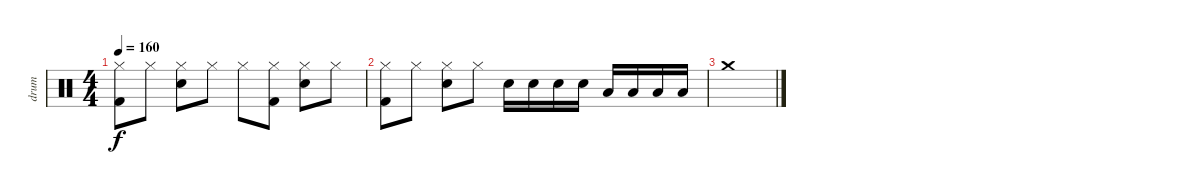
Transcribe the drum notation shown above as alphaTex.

\track ("drum" "drum") {instrument percussion}
\staff {score}
\articulation defaults
\ts (4 4)
\tempo 160
\clef neutral
\ks c
("Hi-Hat (closed)" "Kick (hit) 2").8{dy f} "Hi-Hat (closed)".8 ("Hi-Hat (closed)" "Electric Snare (hit)").8 "Hi-Hat (closed)".8 "Hi-Hat (closed)".8 ("Hi-Hat (closed)" "Kick (hit) 2").8 ("Hi-Hat (closed)" "Electric Snare (hit)").8 "Hi-Hat (closed)".8 |
("Hi-Hat (closed)" "Kick (hit) 2").8 "Hi-Hat (closed)".8 ("Hi-Hat (closed)" "Electric Snare (hit)").8 "Hi-Hat (closed)".8 "Electric Snare (hit)".16 "Electric Snare (hit)".16 "Electric Snare (hit)".16 "Electric Snare (hit)".16 "Low Tom (hit)".16 "Low Tom (hit)".16 "Low Tom (hit)".16 "Low Tom (hit)".16 |
"Crash medium (hit)".1
